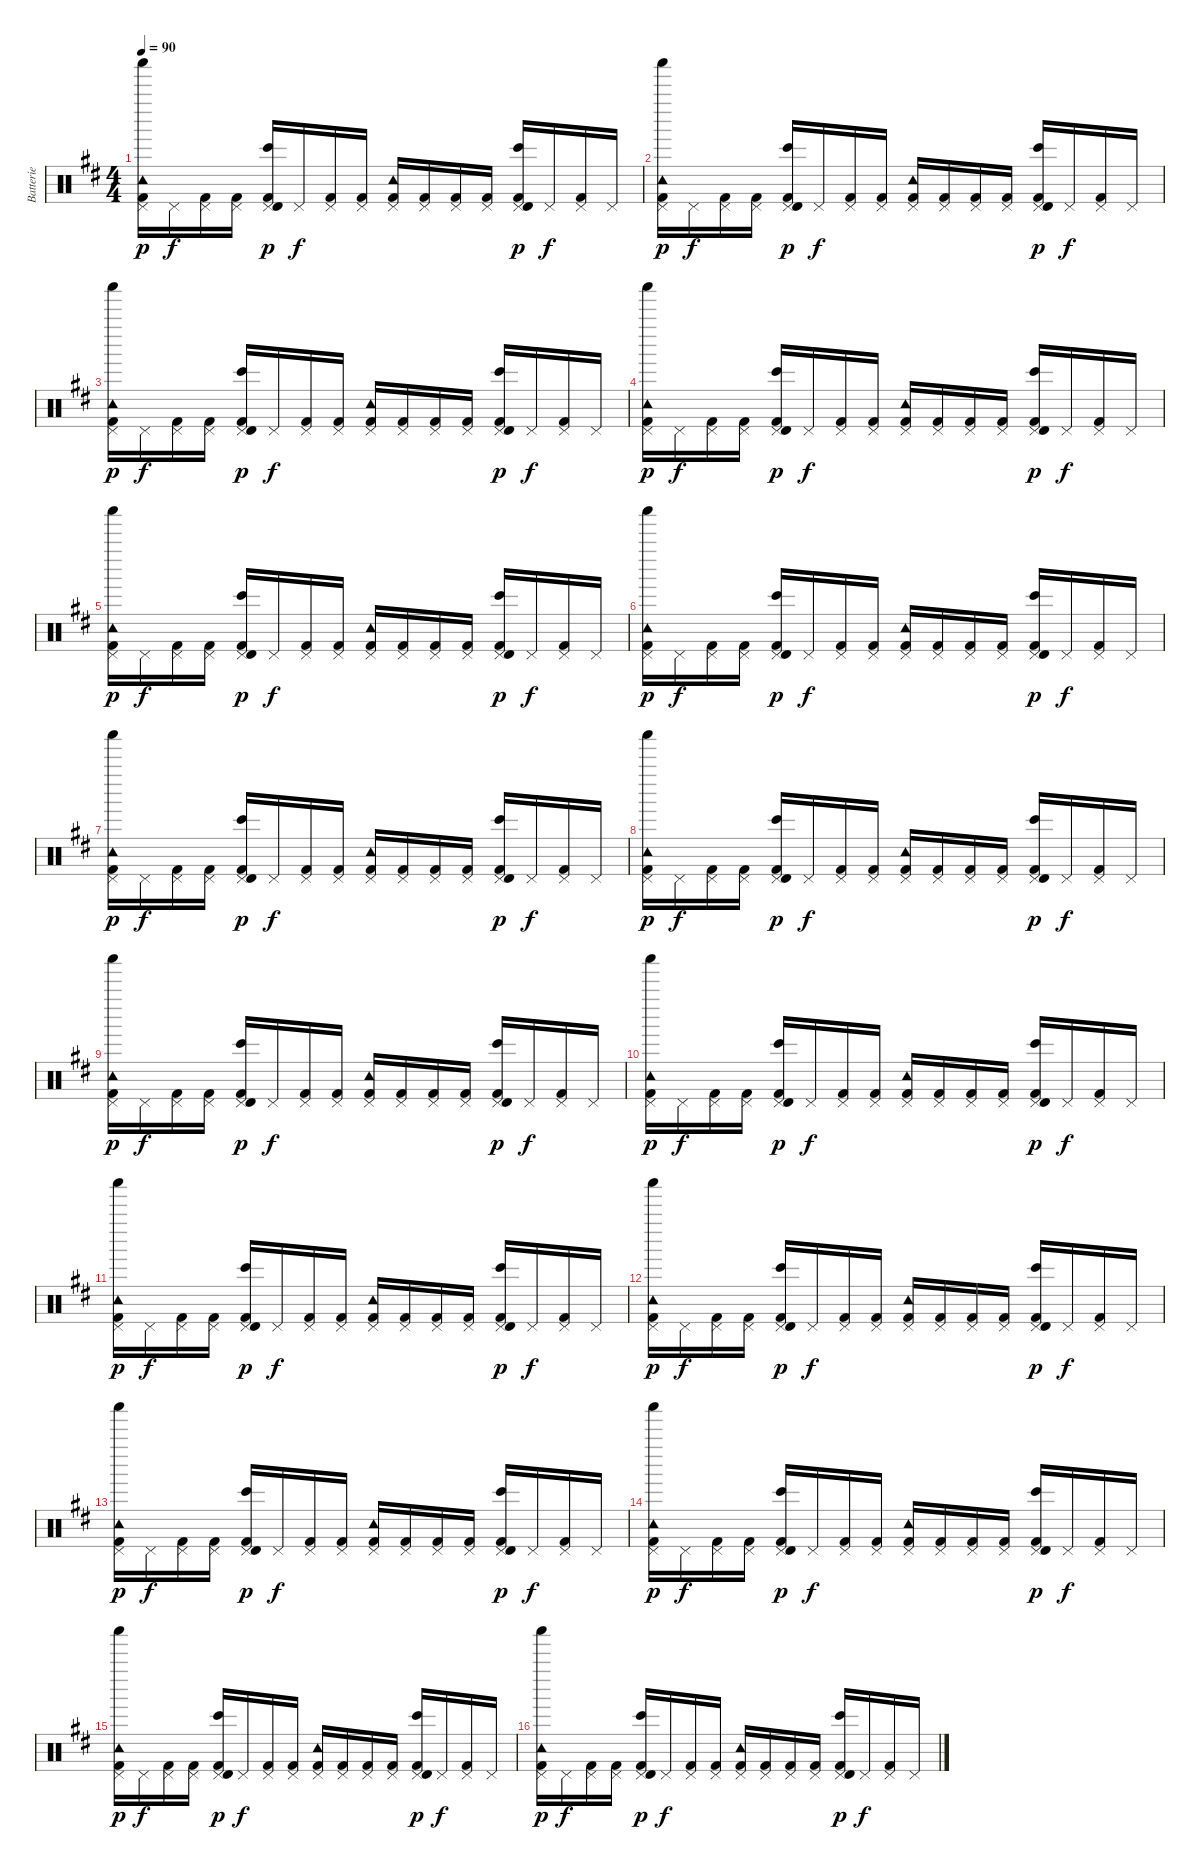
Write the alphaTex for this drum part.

\track ("Batterie" "Batterie") {instrument percussion}
\staff {score}
\articulation defaults
\ts (4 4)
\tempo 90
\clef neutral
\ks d
("Shaker (hit)" "Tambourine (hit)" "Pedal Hi-Hat (hit)" "Kick (hit) 2").16{dy p} "Pedal Hi-Hat (hit)".16{dy f} ("Pedal Hi-Hat (hit)" "Kick (hit) 2").16 ("Pedal Hi-Hat (hit)" "Kick (hit) 2").16 ("Pedal Hi-Hat (hit)" "Bongo High (hit)" "Timbale high (hit)" "Kick (hit) 2").16{dy p} "Pedal Hi-Hat (hit)".16{dy f} ("Pedal Hi-Hat (hit)" "Kick (hit) 2").16 ("Pedal Hi-Hat (hit)" "Kick (hit) 2").16 ("Tambourine (hit)" "Pedal Hi-Hat (hit)" "Kick (hit) 2").16 ("Pedal Hi-Hat (hit)" "Kick (hit) 2").16 ("Pedal Hi-Hat (hit)" "Kick (hit) 2").16 ("Pedal Hi-Hat (hit)" "Kick (hit) 2").16 ("Pedal Hi-Hat (hit)" "Bongo High (hit)" "Timbale high (hit)" "Kick (hit) 2").16{dy p} "Pedal Hi-Hat (hit)".16{dy f} ("Pedal Hi-Hat (hit)" "Kick (hit) 2").16 "Pedal Hi-Hat (hit)".16 |
("Shaker (hit)" "Tambourine (hit)" "Pedal Hi-Hat (hit)" "Kick (hit) 2").16{dy p} "Pedal Hi-Hat (hit)".16{dy f} ("Pedal Hi-Hat (hit)" "Kick (hit) 2").16 ("Pedal Hi-Hat (hit)" "Kick (hit) 2").16 ("Pedal Hi-Hat (hit)" "Bongo High (hit)" "Timbale high (hit)" "Kick (hit) 2").16{dy p} "Pedal Hi-Hat (hit)".16{dy f} ("Pedal Hi-Hat (hit)" "Kick (hit) 2").16 ("Pedal Hi-Hat (hit)" "Kick (hit) 2").16 ("Tambourine (hit)" "Pedal Hi-Hat (hit)" "Kick (hit) 2").16 ("Pedal Hi-Hat (hit)" "Kick (hit) 2").16 ("Pedal Hi-Hat (hit)" "Kick (hit) 2").16 ("Pedal Hi-Hat (hit)" "Kick (hit) 2").16 ("Pedal Hi-Hat (hit)" "Bongo High (hit)" "Timbale high (hit)" "Kick (hit) 2").16{dy p} "Pedal Hi-Hat (hit)".16{dy f} ("Pedal Hi-Hat (hit)" "Kick (hit) 2").16 "Pedal Hi-Hat (hit)".16 |
("Shaker (hit)" "Tambourine (hit)" "Pedal Hi-Hat (hit)" "Kick (hit) 2").16{dy p} "Pedal Hi-Hat (hit)".16{dy f} ("Pedal Hi-Hat (hit)" "Kick (hit) 2").16 ("Pedal Hi-Hat (hit)" "Kick (hit) 2").16 ("Pedal Hi-Hat (hit)" "Bongo High (hit)" "Timbale high (hit)" "Kick (hit) 2").16{dy p} "Pedal Hi-Hat (hit)".16{dy f} ("Pedal Hi-Hat (hit)" "Kick (hit) 2").16 ("Pedal Hi-Hat (hit)" "Kick (hit) 2").16 ("Tambourine (hit)" "Pedal Hi-Hat (hit)" "Kick (hit) 2").16 ("Pedal Hi-Hat (hit)" "Kick (hit) 2").16 ("Pedal Hi-Hat (hit)" "Kick (hit) 2").16 ("Pedal Hi-Hat (hit)" "Kick (hit) 2").16 ("Pedal Hi-Hat (hit)" "Bongo High (hit)" "Timbale high (hit)" "Kick (hit) 2").16{dy p} "Pedal Hi-Hat (hit)".16{dy f} ("Pedal Hi-Hat (hit)" "Kick (hit) 2").16 "Pedal Hi-Hat (hit)".16 |
("Shaker (hit)" "Tambourine (hit)" "Pedal Hi-Hat (hit)" "Kick (hit) 2").16{dy p} "Pedal Hi-Hat (hit)".16{dy f} ("Pedal Hi-Hat (hit)" "Kick (hit) 2").16 ("Pedal Hi-Hat (hit)" "Kick (hit) 2").16 ("Pedal Hi-Hat (hit)" "Bongo High (hit)" "Timbale high (hit)" "Kick (hit) 2").16{dy p} "Pedal Hi-Hat (hit)".16{dy f} ("Pedal Hi-Hat (hit)" "Kick (hit) 2").16 ("Pedal Hi-Hat (hit)" "Kick (hit) 2").16 ("Tambourine (hit)" "Pedal Hi-Hat (hit)" "Kick (hit) 2").16 ("Pedal Hi-Hat (hit)" "Kick (hit) 2").16 ("Pedal Hi-Hat (hit)" "Kick (hit) 2").16 ("Pedal Hi-Hat (hit)" "Kick (hit) 2").16 ("Pedal Hi-Hat (hit)" "Bongo High (hit)" "Timbale high (hit)" "Kick (hit) 2").16{dy p} "Pedal Hi-Hat (hit)".16{dy f} ("Pedal Hi-Hat (hit)" "Kick (hit) 2").16 "Pedal Hi-Hat (hit)".16 |
("Shaker (hit)" "Tambourine (hit)" "Pedal Hi-Hat (hit)" "Kick (hit) 2").16{dy p} "Pedal Hi-Hat (hit)".16{dy f} ("Pedal Hi-Hat (hit)" "Kick (hit) 2").16 ("Pedal Hi-Hat (hit)" "Kick (hit) 2").16 ("Pedal Hi-Hat (hit)" "Bongo High (hit)" "Timbale high (hit)" "Kick (hit) 2").16{dy p} "Pedal Hi-Hat (hit)".16{dy f} ("Pedal Hi-Hat (hit)" "Kick (hit) 2").16 ("Pedal Hi-Hat (hit)" "Kick (hit) 2").16 ("Tambourine (hit)" "Pedal Hi-Hat (hit)" "Kick (hit) 2").16 ("Pedal Hi-Hat (hit)" "Kick (hit) 2").16 ("Pedal Hi-Hat (hit)" "Kick (hit) 2").16 ("Pedal Hi-Hat (hit)" "Kick (hit) 2").16 ("Pedal Hi-Hat (hit)" "Bongo High (hit)" "Timbale high (hit)" "Kick (hit) 2").16{dy p} "Pedal Hi-Hat (hit)".16{dy f} ("Pedal Hi-Hat (hit)" "Kick (hit) 2").16 "Pedal Hi-Hat (hit)".16 |
("Shaker (hit)" "Tambourine (hit)" "Pedal Hi-Hat (hit)" "Kick (hit) 2").16{dy p} "Pedal Hi-Hat (hit)".16{dy f} ("Pedal Hi-Hat (hit)" "Kick (hit) 2").16 ("Pedal Hi-Hat (hit)" "Kick (hit) 2").16 ("Pedal Hi-Hat (hit)" "Bongo High (hit)" "Timbale high (hit)" "Kick (hit) 2").16{dy p} "Pedal Hi-Hat (hit)".16{dy f} ("Pedal Hi-Hat (hit)" "Kick (hit) 2").16 ("Pedal Hi-Hat (hit)" "Kick (hit) 2").16 ("Tambourine (hit)" "Pedal Hi-Hat (hit)" "Kick (hit) 2").16 ("Pedal Hi-Hat (hit)" "Kick (hit) 2").16 ("Pedal Hi-Hat (hit)" "Kick (hit) 2").16 ("Pedal Hi-Hat (hit)" "Kick (hit) 2").16 ("Pedal Hi-Hat (hit)" "Bongo High (hit)" "Timbale high (hit)" "Kick (hit) 2").16{dy p} "Pedal Hi-Hat (hit)".16{dy f} ("Pedal Hi-Hat (hit)" "Kick (hit) 2").16 "Pedal Hi-Hat (hit)".16 |
("Shaker (hit)" "Tambourine (hit)" "Pedal Hi-Hat (hit)" "Kick (hit) 2").16{dy p} "Pedal Hi-Hat (hit)".16{dy f} ("Pedal Hi-Hat (hit)" "Kick (hit) 2").16 ("Pedal Hi-Hat (hit)" "Kick (hit) 2").16 ("Pedal Hi-Hat (hit)" "Bongo High (hit)" "Timbale high (hit)" "Kick (hit) 2").16{dy p} "Pedal Hi-Hat (hit)".16{dy f} ("Pedal Hi-Hat (hit)" "Kick (hit) 2").16 ("Pedal Hi-Hat (hit)" "Kick (hit) 2").16 ("Tambourine (hit)" "Pedal Hi-Hat (hit)" "Kick (hit) 2").16 ("Pedal Hi-Hat (hit)" "Kick (hit) 2").16 ("Pedal Hi-Hat (hit)" "Kick (hit) 2").16 ("Pedal Hi-Hat (hit)" "Kick (hit) 2").16 ("Pedal Hi-Hat (hit)" "Bongo High (hit)" "Timbale high (hit)" "Kick (hit) 2").16{dy p} "Pedal Hi-Hat (hit)".16{dy f} ("Pedal Hi-Hat (hit)" "Kick (hit) 2").16 "Pedal Hi-Hat (hit)".16 |
("Shaker (hit)" "Tambourine (hit)" "Pedal Hi-Hat (hit)" "Kick (hit) 2").16{dy p} "Pedal Hi-Hat (hit)".16{dy f} ("Pedal Hi-Hat (hit)" "Kick (hit) 2").16 ("Pedal Hi-Hat (hit)" "Kick (hit) 2").16 ("Pedal Hi-Hat (hit)" "Bongo High (hit)" "Timbale high (hit)" "Kick (hit) 2").16{dy p} "Pedal Hi-Hat (hit)".16{dy f} ("Pedal Hi-Hat (hit)" "Kick (hit) 2").16 ("Pedal Hi-Hat (hit)" "Kick (hit) 2").16 ("Tambourine (hit)" "Pedal Hi-Hat (hit)" "Kick (hit) 2").16 ("Pedal Hi-Hat (hit)" "Kick (hit) 2").16 ("Pedal Hi-Hat (hit)" "Kick (hit) 2").16 ("Pedal Hi-Hat (hit)" "Kick (hit) 2").16 ("Pedal Hi-Hat (hit)" "Bongo High (hit)" "Timbale high (hit)" "Kick (hit) 2").16{dy p} "Pedal Hi-Hat (hit)".16{dy f} ("Pedal Hi-Hat (hit)" "Kick (hit) 2").16 "Pedal Hi-Hat (hit)".16 |
("Shaker (hit)" "Tambourine (hit)" "Pedal Hi-Hat (hit)" "Kick (hit) 2").16{dy p} "Pedal Hi-Hat (hit)".16{dy f} ("Pedal Hi-Hat (hit)" "Kick (hit) 2").16 ("Pedal Hi-Hat (hit)" "Kick (hit) 2").16 ("Pedal Hi-Hat (hit)" "Bongo High (hit)" "Timbale high (hit)" "Kick (hit) 2").16{dy p} "Pedal Hi-Hat (hit)".16{dy f} ("Pedal Hi-Hat (hit)" "Kick (hit) 2").16 ("Pedal Hi-Hat (hit)" "Kick (hit) 2").16 ("Tambourine (hit)" "Pedal Hi-Hat (hit)" "Kick (hit) 2").16 ("Pedal Hi-Hat (hit)" "Kick (hit) 2").16 ("Pedal Hi-Hat (hit)" "Kick (hit) 2").16 ("Pedal Hi-Hat (hit)" "Kick (hit) 2").16 ("Pedal Hi-Hat (hit)" "Bongo High (hit)" "Timbale high (hit)" "Kick (hit) 2").16{dy p} "Pedal Hi-Hat (hit)".16{dy f} ("Pedal Hi-Hat (hit)" "Kick (hit) 2").16 "Pedal Hi-Hat (hit)".16 |
("Shaker (hit)" "Tambourine (hit)" "Pedal Hi-Hat (hit)" "Kick (hit) 2").16{dy p} "Pedal Hi-Hat (hit)".16{dy f} ("Pedal Hi-Hat (hit)" "Kick (hit) 2").16 ("Pedal Hi-Hat (hit)" "Kick (hit) 2").16 ("Pedal Hi-Hat (hit)" "Bongo High (hit)" "Timbale high (hit)" "Kick (hit) 2").16{dy p} "Pedal Hi-Hat (hit)".16{dy f} ("Pedal Hi-Hat (hit)" "Kick (hit) 2").16 ("Pedal Hi-Hat (hit)" "Kick (hit) 2").16 ("Tambourine (hit)" "Pedal Hi-Hat (hit)" "Kick (hit) 2").16 ("Pedal Hi-Hat (hit)" "Kick (hit) 2").16 ("Pedal Hi-Hat (hit)" "Kick (hit) 2").16 ("Pedal Hi-Hat (hit)" "Kick (hit) 2").16 ("Pedal Hi-Hat (hit)" "Bongo High (hit)" "Timbale high (hit)" "Kick (hit) 2").16{dy p} "Pedal Hi-Hat (hit)".16{dy f} ("Pedal Hi-Hat (hit)" "Kick (hit) 2").16 "Pedal Hi-Hat (hit)".16 |
("Shaker (hit)" "Tambourine (hit)" "Pedal Hi-Hat (hit)" "Kick (hit) 2").16{dy p} "Pedal Hi-Hat (hit)".16{dy f} ("Pedal Hi-Hat (hit)" "Kick (hit) 2").16 ("Pedal Hi-Hat (hit)" "Kick (hit) 2").16 ("Pedal Hi-Hat (hit)" "Bongo High (hit)" "Timbale high (hit)" "Kick (hit) 2").16{dy p} "Pedal Hi-Hat (hit)".16{dy f} ("Pedal Hi-Hat (hit)" "Kick (hit) 2").16 ("Pedal Hi-Hat (hit)" "Kick (hit) 2").16 ("Tambourine (hit)" "Pedal Hi-Hat (hit)" "Kick (hit) 2").16 ("Pedal Hi-Hat (hit)" "Kick (hit) 2").16 ("Pedal Hi-Hat (hit)" "Kick (hit) 2").16 ("Pedal Hi-Hat (hit)" "Kick (hit) 2").16 ("Pedal Hi-Hat (hit)" "Bongo High (hit)" "Timbale high (hit)" "Kick (hit) 2").16{dy p} "Pedal Hi-Hat (hit)".16{dy f} ("Pedal Hi-Hat (hit)" "Kick (hit) 2").16 "Pedal Hi-Hat (hit)".16 |
("Shaker (hit)" "Tambourine (hit)" "Pedal Hi-Hat (hit)" "Kick (hit) 2").16{dy p} "Pedal Hi-Hat (hit)".16{dy f} ("Pedal Hi-Hat (hit)" "Kick (hit) 2").16 ("Pedal Hi-Hat (hit)" "Kick (hit) 2").16 ("Pedal Hi-Hat (hit)" "Bongo High (hit)" "Timbale high (hit)" "Kick (hit) 2").16{dy p} "Pedal Hi-Hat (hit)".16{dy f} ("Pedal Hi-Hat (hit)" "Kick (hit) 2").16 ("Pedal Hi-Hat (hit)" "Kick (hit) 2").16 ("Tambourine (hit)" "Pedal Hi-Hat (hit)" "Kick (hit) 2").16 ("Pedal Hi-Hat (hit)" "Kick (hit) 2").16 ("Pedal Hi-Hat (hit)" "Kick (hit) 2").16 ("Pedal Hi-Hat (hit)" "Kick (hit) 2").16 ("Pedal Hi-Hat (hit)" "Bongo High (hit)" "Timbale high (hit)" "Kick (hit) 2").16{dy p} "Pedal Hi-Hat (hit)".16{dy f} ("Pedal Hi-Hat (hit)" "Kick (hit) 2").16 "Pedal Hi-Hat (hit)".16 |
("Shaker (hit)" "Tambourine (hit)" "Pedal Hi-Hat (hit)" "Kick (hit) 2").16{dy p} "Pedal Hi-Hat (hit)".16{dy f} ("Pedal Hi-Hat (hit)" "Kick (hit) 2").16 ("Pedal Hi-Hat (hit)" "Kick (hit) 2").16 ("Pedal Hi-Hat (hit)" "Bongo High (hit)" "Timbale high (hit)" "Kick (hit) 2").16{dy p} "Pedal Hi-Hat (hit)".16{dy f} ("Pedal Hi-Hat (hit)" "Kick (hit) 2").16 ("Pedal Hi-Hat (hit)" "Kick (hit) 2").16 ("Tambourine (hit)" "Pedal Hi-Hat (hit)" "Kick (hit) 2").16 ("Pedal Hi-Hat (hit)" "Kick (hit) 2").16 ("Pedal Hi-Hat (hit)" "Kick (hit) 2").16 ("Pedal Hi-Hat (hit)" "Kick (hit) 2").16 ("Pedal Hi-Hat (hit)" "Bongo High (hit)" "Timbale high (hit)" "Kick (hit) 2").16{dy p} "Pedal Hi-Hat (hit)".16{dy f} ("Pedal Hi-Hat (hit)" "Kick (hit) 2").16 "Pedal Hi-Hat (hit)".16 |
("Shaker (hit)" "Tambourine (hit)" "Pedal Hi-Hat (hit)" "Kick (hit) 2").16{dy p} "Pedal Hi-Hat (hit)".16{dy f} ("Pedal Hi-Hat (hit)" "Kick (hit) 2").16 ("Pedal Hi-Hat (hit)" "Kick (hit) 2").16 ("Pedal Hi-Hat (hit)" "Bongo High (hit)" "Timbale high (hit)" "Kick (hit) 2").16{dy p} "Pedal Hi-Hat (hit)".16{dy f} ("Pedal Hi-Hat (hit)" "Kick (hit) 2").16 ("Pedal Hi-Hat (hit)" "Kick (hit) 2").16 ("Tambourine (hit)" "Pedal Hi-Hat (hit)" "Kick (hit) 2").16 ("Pedal Hi-Hat (hit)" "Kick (hit) 2").16 ("Pedal Hi-Hat (hit)" "Kick (hit) 2").16 ("Pedal Hi-Hat (hit)" "Kick (hit) 2").16 ("Pedal Hi-Hat (hit)" "Bongo High (hit)" "Timbale high (hit)" "Kick (hit) 2").16{dy p} "Pedal Hi-Hat (hit)".16{dy f} ("Pedal Hi-Hat (hit)" "Kick (hit) 2").16 "Pedal Hi-Hat (hit)".16 |
("Shaker (hit)" "Tambourine (hit)" "Pedal Hi-Hat (hit)" "Kick (hit) 2").16{dy p} "Pedal Hi-Hat (hit)".16{dy f} ("Pedal Hi-Hat (hit)" "Kick (hit) 2").16 ("Pedal Hi-Hat (hit)" "Kick (hit) 2").16 ("Pedal Hi-Hat (hit)" "Bongo High (hit)" "Timbale high (hit)" "Kick (hit) 2").16{dy p} "Pedal Hi-Hat (hit)".16{dy f} ("Pedal Hi-Hat (hit)" "Kick (hit) 2").16 ("Pedal Hi-Hat (hit)" "Kick (hit) 2").16 ("Tambourine (hit)" "Pedal Hi-Hat (hit)" "Kick (hit) 2").16 ("Pedal Hi-Hat (hit)" "Kick (hit) 2").16 ("Pedal Hi-Hat (hit)" "Kick (hit) 2").16 ("Pedal Hi-Hat (hit)" "Kick (hit) 2").16 ("Pedal Hi-Hat (hit)" "Bongo High (hit)" "Timbale high (hit)" "Kick (hit) 2").16{dy p} "Pedal Hi-Hat (hit)".16{dy f} ("Pedal Hi-Hat (hit)" "Kick (hit) 2").16 "Pedal Hi-Hat (hit)".16 |
("Shaker (hit)" "Tambourine (hit)" "Pedal Hi-Hat (hit)" "Kick (hit) 2").16{dy p} "Pedal Hi-Hat (hit)".16{dy f} ("Pedal Hi-Hat (hit)" "Kick (hit) 2").16 ("Pedal Hi-Hat (hit)" "Kick (hit) 2").16 ("Pedal Hi-Hat (hit)" "Bongo High (hit)" "Timbale high (hit)" "Kick (hit) 2").16{dy p} "Pedal Hi-Hat (hit)".16{dy f} ("Pedal Hi-Hat (hit)" "Kick (hit) 2").16 ("Pedal Hi-Hat (hit)" "Kick (hit) 2").16 ("Tambourine (hit)" "Pedal Hi-Hat (hit)" "Kick (hit) 2").16 ("Pedal Hi-Hat (hit)" "Kick (hit) 2").16 ("Pedal Hi-Hat (hit)" "Kick (hit) 2").16 ("Pedal Hi-Hat (hit)" "Kick (hit) 2").16 ("Pedal Hi-Hat (hit)" "Bongo High (hit)" "Timbale high (hit)" "Kick (hit) 2").16{dy p} "Pedal Hi-Hat (hit)".16{dy f} ("Pedal Hi-Hat (hit)" "Kick (hit) 2").16 "Pedal Hi-Hat (hit)".16
